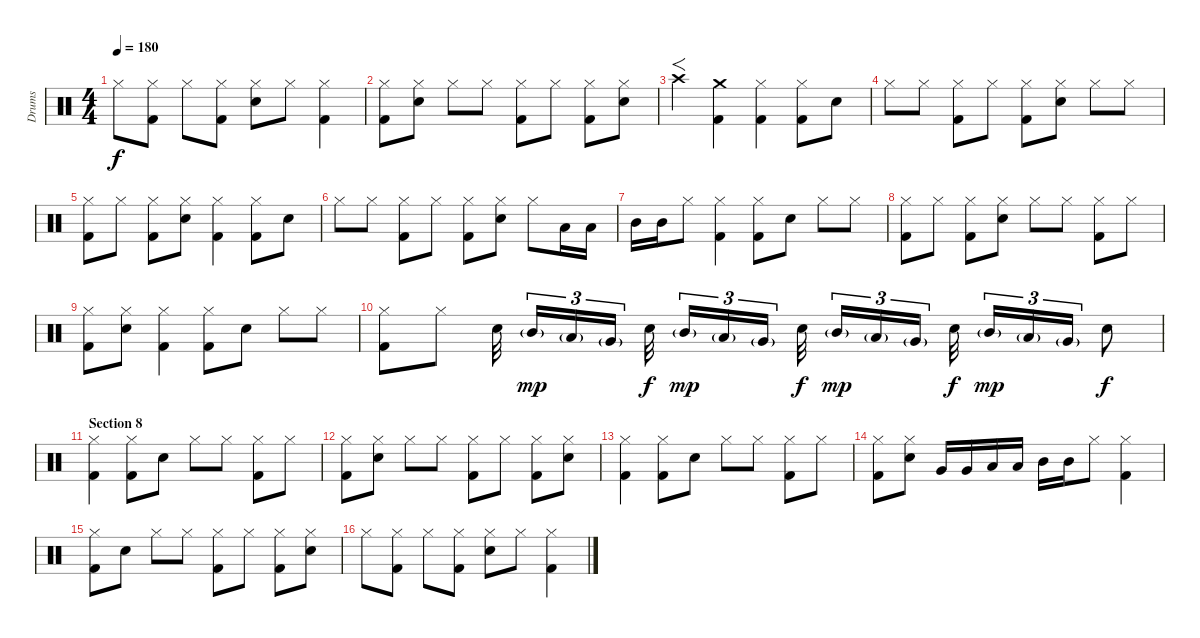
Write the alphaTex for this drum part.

\track ("Drums" "Drums") {instrument percussion}
\staff {score}
\articulation defaults
\ts (4 4)
\tempo 180
\clef neutral
\ks c "Hi-Hat (closed)".8{dy f}
("Hi-Hat (closed)" "Kick (hit) 2").8 "Hi-Hat (closed)".8 ("Hi-Hat (closed)" "Kick (hit) 2").8 ("Hi-Hat (closed)" "Electric Snare (hit)").8 "Hi-Hat (closed)".8 ("Hi-Hat (closed)" "Kick (hit) 2").4 |
("Hi-Hat (closed)" "Kick (hit) 2").8 ("Hi-Hat (closed)" "Electric Snare (hit)").8 "Hi-Hat (closed)".8 "Hi-Hat (closed)".8 ("Hi-Hat (closed)" "Kick (hit) 2").8 "Hi-Hat (closed)".8 ("Hi-Hat (closed)" "Kick (hit) 2").8 ("Hi-Hat (closed)" "Electric Snare (hit)").8 |
"Crash high (hit)".4{f} ("Crash medium (hit)" "Kick (hit) 2").4 ("Hi-Hat (closed)" "Kick (hit) 2").4 ("Hi-Hat (closed)" "Kick (hit) 2").8 "Electric Snare (hit)".8 |
"Hi-Hat (closed)".8 "Hi-Hat (closed)".8 ("Hi-Hat (closed)" "Kick (hit) 2").8 "Hi-Hat (closed)".8 ("Hi-Hat (closed)" "Kick (hit) 2").8 ("Hi-Hat (closed)" "Electric Snare (hit)").8 "Hi-Hat (closed)".8 "Hi-Hat (closed)".8 |
("Hi-Hat (closed)" "Kick (hit) 2").8 "Hi-Hat (closed)".8 ("Hi-Hat (closed)" "Kick (hit) 2").8 ("Hi-Hat (closed)" "Electric Snare (hit)").8 ("Hi-Hat (closed)" "Kick (hit) 2").4 ("Hi-Hat (closed)" "Kick (hit) 2").8 "Electric Snare (hit)".8 |
"Hi-Hat (closed)".8 "Hi-Hat (closed)".8 ("Hi-Hat (closed)" "Kick (hit) 2").8 "Hi-Hat (closed)".8 ("Hi-Hat (closed)" "Kick (hit) 2").8 ("Hi-Hat (closed)" "Electric Snare (hit)").8 "Hi-Hat (closed)".8 "Low Tom (hit)".16 "Low Tom (hit)".16 |
"Mid Tom (hit)".16 "Mid Tom (hit)".16 "Hi-Hat (closed)".8 ("Hi-Hat (closed)" "Kick (hit) 2").4 ("Hi-Hat (closed)" "Kick (hit) 2").8 "Electric Snare (hit)".8 "Hi-Hat (closed)".8 "Hi-Hat (closed)".8 |
("Hi-Hat (closed)" "Kick (hit) 2").8 "Hi-Hat (closed)".8 ("Hi-Hat (closed)" "Kick (hit) 2").8 ("Hi-Hat (closed)" "Electric Snare (hit)").8 "Hi-Hat (closed)".8 "Hi-Hat (closed)".8 ("Hi-Hat (closed)" "Kick (hit) 2").8 "Hi-Hat (closed)".8 |
("Hi-Hat (closed)" "Kick (hit) 2").8 ("Hi-Hat (closed)" "Electric Snare (hit)").8 ("Hi-Hat (closed)" "Kick (hit) 2").4 ("Hi-Hat (closed)" "Kick (hit) 2").8 "Electric Snare (hit)".8 "Hi-Hat (closed)".8 "Hi-Hat (closed)".8 |
("Hi-Hat (closed)" "Kick (hit) 2").8 "Hi-Hat (closed)".8 "Electric Snare (hit)".32{beam splitsecondary} "Mid Tom (hit)"{g}.16{tu (3 2) dy mp} "Low Tom (hit)"{g}.16{tu (3 2)} "Very Low Tom (hit)"{g}.16{tu (3 2) beam splitsecondary} "Electric Snare (hit)".32{dy f beam splitsecondary} "Mid Tom (hit)"{g}.16{tu (3 2) dy mp} "Low Tom (hit)"{g}.16{tu (3 2)} "Very Low Tom (hit)"{g}.16{tu (3 2) beam splitsecondary} "Electric Snare (hit)".32{dy f beam splitsecondary} "Mid Tom (hit)"{g}.16{tu (3 2) dy mp} "Low Tom (hit)"{g}.16{tu (3 2)} "Very Low Tom (hit)"{g}.16{tu (3 2) beam splitsecondary} "Electric Snare (hit)".32{dy f} "Mid Tom (hit)"{g}.16{tu (3 2) dy mp} "Low Tom (hit)"{g}.16{tu (3 2)} "Very Low Tom (hit)"{g}.16{tu (3 2)} "Electric Snare (hit)".8{dy f} |
\section ("" "Section 8")
("Hi-Hat (closed)" "Kick (hit) 2").4 ("Hi-Hat (closed)" "Kick (hit) 2").8 "Electric Snare (hit)".8 "Hi-Hat (closed)".8 "Hi-Hat (closed)".8 ("Hi-Hat (closed)" "Kick (hit) 2").8 "Hi-Hat (closed)".8 |
("Hi-Hat (closed)" "Kick (hit) 2").8 ("Hi-Hat (closed)" "Electric Snare (hit)").8 "Hi-Hat (closed)".8 "Hi-Hat (closed)".8 ("Hi-Hat (closed)" "Kick (hit) 2").8 "Hi-Hat (closed)".8 ("Hi-Hat (closed)" "Kick (hit) 2").8 ("Hi-Hat (closed)" "Electric Snare (hit)").8 |
("Hi-Hat (closed)" "Kick (hit) 2").4 ("Hi-Hat (closed)" "Kick (hit) 2").8 "Electric Snare (hit)".8 "Hi-Hat (closed)".8 "Hi-Hat (closed)".8 ("Hi-Hat (closed)" "Kick (hit) 2").8 "Hi-Hat (closed)".8 |
("Hi-Hat (closed)" "Kick (hit) 2").8 ("Hi-Hat (closed)" "Electric Snare (hit)").8 "Very Low Tom (hit)".16 "Very Low Tom (hit)".16 "Low Tom (hit)".16 "Low Tom (hit)".16 "Mid Tom (hit)".16 "Mid Tom (hit)".16 "Hi-Hat (closed)".8 ("Hi-Hat (closed)" "Kick (hit) 2").4 |
("Hi-Hat (closed)" "Kick (hit) 2").8 "Electric Snare (hit)".8 "Hi-Hat (closed)".8 "Hi-Hat (closed)".8 ("Hi-Hat (closed)" "Kick (hit) 2").8 "Hi-Hat (closed)".8 ("Hi-Hat (closed)" "Kick (hit) 2").8 ("Hi-Hat (closed)" "Electric Snare (hit)").8 |
"Hi-Hat (closed)".8 ("Hi-Hat (closed)" "Kick (hit) 2").8 "Hi-Hat (closed)".8 ("Hi-Hat (closed)" "Kick (hit) 2").8 ("Hi-Hat (closed)" "Electric Snare (hit)").8 "Hi-Hat (closed)".8 ("Hi-Hat (closed)" "Kick (hit) 2").4
